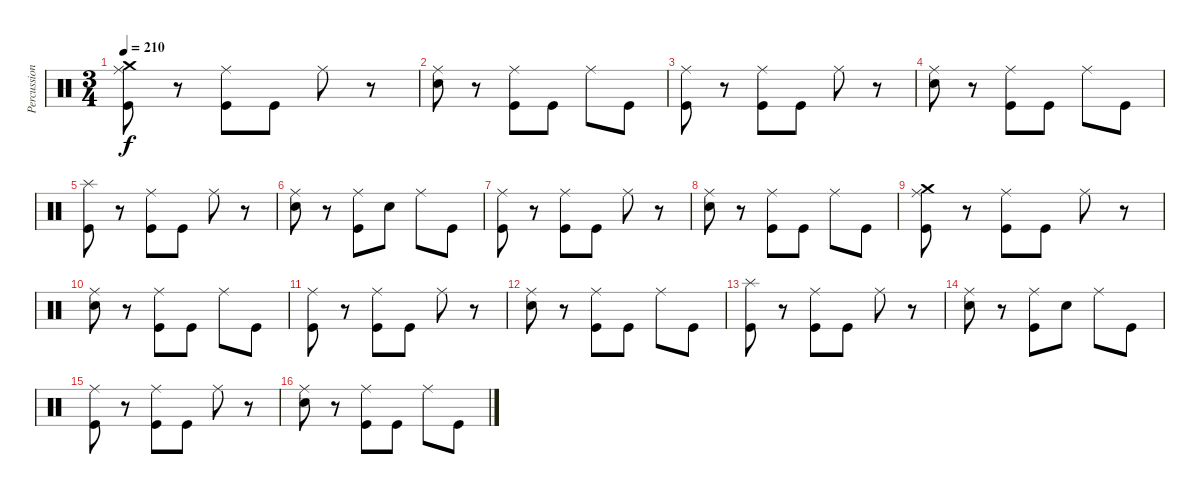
\track ("Percussion" "Percussion") {instrument percussion}
\staff {score}
\articulation defaults
\ts (3 4)
\tempo 210
\clef neutral
\ks c
("Crash medium (hit)" "Ride (middle)" "Kick (hit)").8{dy f} r.8 ("Ride (middle)" "Kick (hit)").8 "Kick (hit)".8 "Ride (middle)".8 r.8 |
("Ride (middle)" "Electric Snare (hit)").8 r.8 ("Ride (middle)" "Kick (hit)").8 "Kick (hit)".8 "Ride (middle)".8 "Kick (hit)".8 |
("Ride (middle)" "Kick (hit)").8 r.8 ("Ride (middle)" "Kick (hit)").8 "Kick (hit)".8 "Ride (middle)".8 r.8 |
("Ride (middle)" "Electric Snare (hit)").8 r.8 ("Ride (middle)" "Kick (hit)").8 "Kick (hit)".8 "Ride (middle)".8 "Kick (hit)".8 |
("Splash (hit)" "Kick (hit)").8 r.8 ("Ride (middle)" "Kick (hit)").8 "Kick (hit)".8 "Ride (middle)".8 r.8 |
("Ride (middle)" "Electric Snare (hit)").8 r.8 ("Ride (middle)" "Kick (hit)").8 "Electric Snare (hit)".8 "Ride (middle)".8 "Kick (hit)".8 |
("Ride (middle)" "Kick (hit)").8 r.8 ("Ride (middle)" "Kick (hit)").8 "Kick (hit)".8 "Ride (middle)".8 r.8 |
("Ride (middle)" "Electric Snare (hit)").8 r.8 ("Ride (middle)" "Kick (hit)").8 "Kick (hit)".8 "Ride (middle)".8 "Kick (hit)".8 |
("Crash medium (hit)" "Ride (middle)" "Kick (hit)").8 r.8 ("Ride (middle)" "Kick (hit)").8 "Kick (hit)".8 "Ride (middle)".8 r.8 |
("Ride (middle)" "Electric Snare (hit)").8 r.8 ("Ride (middle)" "Kick (hit)").8 "Kick (hit)".8 "Ride (middle)".8 "Kick (hit)".8 |
("Ride (middle)" "Kick (hit)").8 r.8 ("Ride (middle)" "Kick (hit)").8 "Kick (hit)".8 "Ride (middle)".8 r.8 |
("Ride (middle)" "Electric Snare (hit)").8 r.8 ("Ride (middle)" "Kick (hit)").8 "Kick (hit)".8 "Ride (middle)".8 "Kick (hit)".8 |
("Splash (hit)" "Kick (hit)").8 r.8 ("Ride (middle)" "Kick (hit)").8 "Kick (hit)".8 "Ride (middle)".8 r.8 |
("Ride (middle)" "Electric Snare (hit)").8 r.8 ("Ride (middle)" "Kick (hit)").8 "Electric Snare (hit)".8 "Ride (middle)".8 "Kick (hit)".8 |
("Ride (middle)" "Kick (hit)").8 r.8 ("Ride (middle)" "Kick (hit)").8 "Kick (hit)".8 "Ride (middle)".8 r.8 |
("Ride (middle)" "Electric Snare (hit)").8 r.8 ("Ride (middle)" "Kick (hit)").8 "Kick (hit)".8 "Ride (middle)".8 "Kick (hit)".8
